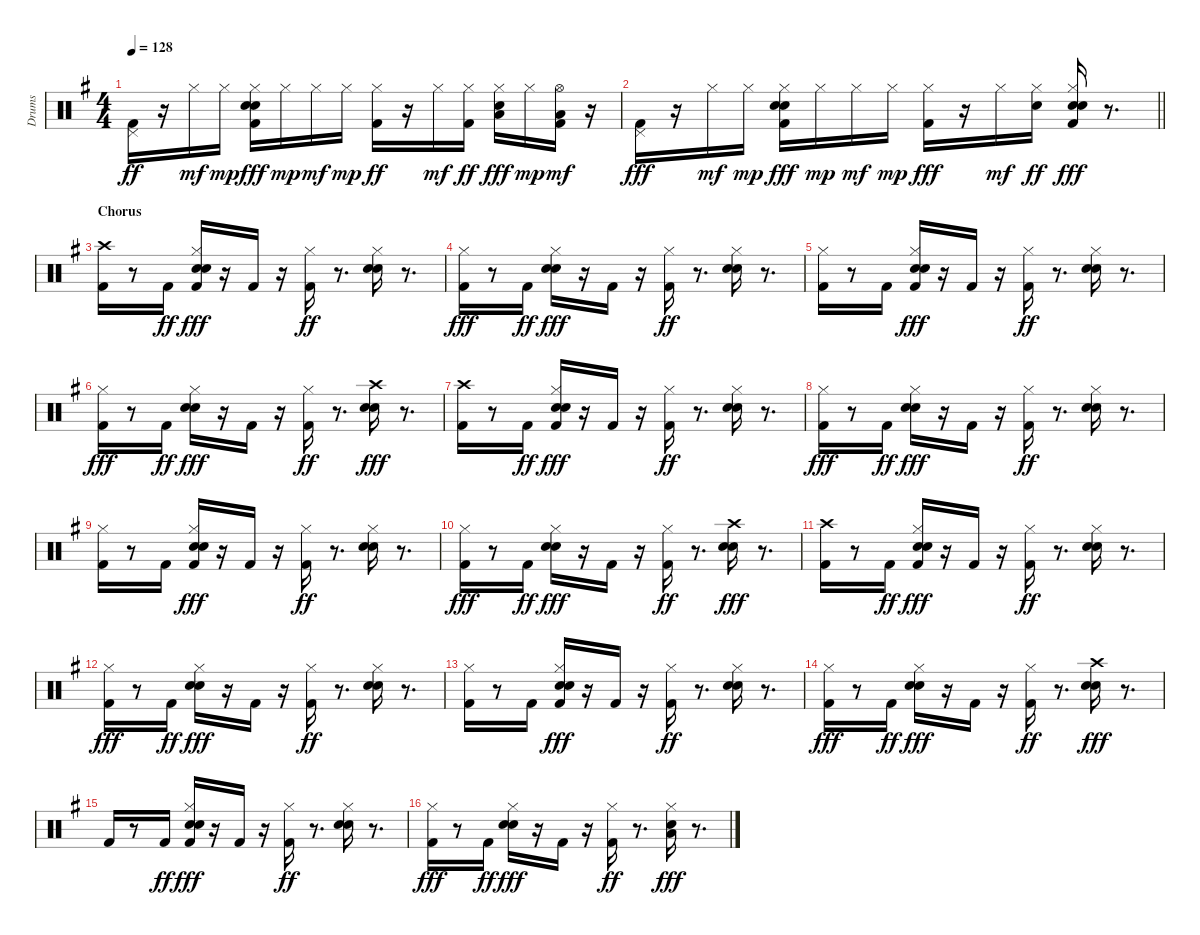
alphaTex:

\track ("Drums" "Drums") {instrument percussion}
\staff {score}
\articulation defaults
\ts (4 4)
\tempo 128
\clef neutral
\ks eminor
("Kick (hit) 2" "Pedal Hi-Hat (hit)").16{dy ff} r.16 "Hi-Hat (closed)".16{dy mf} "Hi-Hat (closed)".16{dy mp} ("Hand Clap (hit)" "Kick (hit) 2" "Hi-Hat (closed)" "Electric Snare (hit)").16{dy fff} "Hi-Hat (closed)".16{dy mp} "Hi-Hat (closed)".16{dy mf} "Hi-Hat (closed)".16{dy mp} ("Kick (hit) 2" "Hi-Hat (closed)").16{dy ff} r.16 "Hi-Hat (closed)".16{dy mf} ("Hi-Hat (closed)" "Kick (hit) 2").16{dy ff} ("Hand Clap (hit)" "Hi-Hat (closed)" "Low Tom (hit)").16{dy fff} "Hi-Hat (closed)".16{dy mp} ("Kick (hit) 2" "Low Floor Tom (hit)" "Hi-Hat (open)").16{dy mf} r.16 |
\barLineRight lightlight
("Pedal Hi-Hat (hit)" "Kick (hit) 2").16{dy fff} r.16 "Hi-Hat (closed)".16{dy mf} "Hi-Hat (closed)".16{dy mp} ("Hand Clap (hit)" "Hi-Hat (closed)" "Kick (hit) 2" "Electric Snare (hit)").16{dy fff} "Hi-Hat (closed)".16{dy mp} "Hi-Hat (closed)".16{dy mf} "Hi-Hat (closed)".16{dy mp} ("Hi-Hat (closed)" "Kick (hit) 2").16{dy fff} r.16 "Hi-Hat (closed)".16{dy mf} ("Hi-Hat (closed)" "Electric Snare (hit)").16{dy ff} ("Hand Clap (hit)" "Hi-Hat (closed)" "Kick (hit) 2" "Electric Snare (hit)").16{dy fff} r.8{d} |
\section ("" "Chorus")
("Kick (hit) 2" "Crash high (hit)").16 r.8 "Kick (hit) 2".16{dy ff} ("Hand Clap (hit)" "Kick (hit) 2" "Hi-Hat (closed)" "Electric Snare (hit)").16{dy fff} r.16 "Kick (hit) 2".16 r.16 ("Kick (hit) 2" "Hi-Hat (closed)").16{dy ff} r.8{d} ("Hand Clap (hit)" "Electric Snare (hit)" "Hi-Hat (closed)").16 r.8{d} |
("Hi-Hat (closed)" "Kick (hit) 2").16{dy fff} r.8 "Kick (hit) 2".16{dy ff} ("Hand Clap (hit)" "Hi-Hat (closed)" "Electric Snare (hit)").16{dy fff} r.16 "Kick (hit) 2".16 r.16 ("Kick (hit) 2" "Hi-Hat (closed)").16{dy ff} r.8{d} ("Hand Clap (hit)" "Electric Snare (hit)" "Hi-Hat (closed)").16 r.8{d} |
("Kick (hit) 2" "Hi-Hat (closed)").16 r.8 "Kick (hit) 2".16 ("Hand Clap (hit)" "Kick (hit) 2" "Hi-Hat (closed)" "Electric Snare (hit)").16{dy fff} r.16 "Kick (hit) 2".16 r.16 ("Kick (hit) 2" "Hi-Hat (closed)").16{dy ff} r.8{d} ("Hand Clap (hit)" "Electric Snare (hit)" "Hi-Hat (closed)").16 r.8{d} |
("Hi-Hat (closed)" "Kick (hit) 2").16{dy fff} r.8 "Kick (hit) 2".16{dy ff} ("Hand Clap (hit)" "Hi-Hat (closed)" "Electric Snare (hit)").16{dy fff} r.16 "Kick (hit) 2".16 r.16 ("Kick (hit) 2" "Hi-Hat (closed)").16{dy ff} r.8{d} ("Hand Clap (hit)" "Crash high (hit)" "Electric Snare (hit)").16{dy fff} r.8{d} |
("Kick (hit) 2" "Crash high (hit)").16 r.8 "Kick (hit) 2".16{dy ff} ("Hand Clap (hit)" "Kick (hit) 2" "Hi-Hat (closed)" "Electric Snare (hit)").16{dy fff} r.16 "Kick (hit) 2".16 r.16 ("Kick (hit) 2" "Hi-Hat (closed)").16{dy ff} r.8{d} ("Hand Clap (hit)" "Electric Snare (hit)" "Hi-Hat (closed)").16 r.8{d} |
("Hi-Hat (closed)" "Kick (hit) 2").16{dy fff} r.8 "Kick (hit) 2".16{dy ff} ("Hand Clap (hit)" "Hi-Hat (closed)" "Electric Snare (hit)").16{dy fff} r.16 "Kick (hit) 2".16 r.16 ("Kick (hit) 2" "Hi-Hat (closed)").16{dy ff} r.8{d} ("Hand Clap (hit)" "Electric Snare (hit)" "Hi-Hat (closed)").16 r.8{d} |
("Kick (hit) 2" "Hi-Hat (closed)").16 r.8 "Kick (hit) 2".16 ("Hand Clap (hit)" "Kick (hit) 2" "Hi-Hat (closed)" "Electric Snare (hit)").16{dy fff} r.16 "Kick (hit) 2".16 r.16 ("Kick (hit) 2" "Hi-Hat (closed)").16{dy ff} r.8{d} ("Hand Clap (hit)" "Electric Snare (hit)" "Hi-Hat (closed)").16 r.8{d} |
("Hi-Hat (closed)" "Kick (hit) 2").16{dy fff} r.8 "Kick (hit) 2".16{dy ff} ("Hand Clap (hit)" "Hi-Hat (closed)" "Electric Snare (hit)").16{dy fff} r.16 "Kick (hit) 2".16 r.16 ("Kick (hit) 2" "Hi-Hat (closed)").16{dy ff} r.8{d} ("Hand Clap (hit)" "Crash high (hit)" "Electric Snare (hit)").16{dy fff} r.8{d} |
("Kick (hit) 2" "Crash high (hit)").16 r.8 "Kick (hit) 2".16{dy ff} ("Hand Clap (hit)" "Kick (hit) 2" "Hi-Hat (closed)" "Electric Snare (hit)").16{dy fff} r.16 "Kick (hit) 2".16 r.16 ("Kick (hit) 2" "Hi-Hat (closed)").16{dy ff} r.8{d} ("Hand Clap (hit)" "Electric Snare (hit)" "Hi-Hat (closed)").16 r.8{d} |
("Hi-Hat (closed)" "Kick (hit) 2").16{dy fff} r.8 "Kick (hit) 2".16{dy ff} ("Hand Clap (hit)" "Hi-Hat (closed)" "Electric Snare (hit)").16{dy fff} r.16 "Kick (hit) 2".16 r.16 ("Kick (hit) 2" "Hi-Hat (closed)").16{dy ff} r.8{d} ("Hand Clap (hit)" "Electric Snare (hit)" "Hi-Hat (closed)").16 r.8{d} |
("Kick (hit) 2" "Hi-Hat (closed)").16 r.8 "Kick (hit) 2".16 ("Hand Clap (hit)" "Kick (hit) 2" "Hi-Hat (closed)" "Electric Snare (hit)").16{dy fff} r.16 "Kick (hit) 2".16 r.16 ("Kick (hit) 2" "Hi-Hat (closed)").16{dy ff} r.8{d} ("Hand Clap (hit)" "Electric Snare (hit)" "Hi-Hat (closed)").16 r.8{d} |
("Hi-Hat (closed)" "Kick (hit) 2").16{dy fff} r.8 "Kick (hit) 2".16{dy ff} ("Hand Clap (hit)" "Hi-Hat (closed)" "Electric Snare (hit)").16{dy fff} r.16 "Kick (hit) 2".16 r.16 ("Kick (hit) 2" "Hi-Hat (closed)").16{dy ff} r.8{d} ("Hand Clap (hit)" "Crash high (hit)" "Electric Snare (hit)").16{dy fff} r.8{d} |
"Kick (hit) 2".16 r.8 "Kick (hit) 2".16{dy ff} ("Hand Clap (hit)" "Kick (hit) 2" "Hi-Hat (closed)" "Electric Snare (hit)").16{dy fff} r.16 "Kick (hit) 2".16 r.16 ("Kick (hit) 2" "Hi-Hat (closed)").16{dy ff} r.8{d} ("Hand Clap (hit)" "Electric Snare (hit)" "Hi-Hat (closed)").16 r.8{d} |
("Hi-Hat (closed)" "Kick (hit) 2").16{dy fff} r.8 "Kick (hit) 2".16{dy ff} ("Hand Clap (hit)" "Hi-Hat (closed)" "Electric Snare (hit)").16{dy fff} r.16 "Kick (hit) 2".16 r.16 ("Kick (hit) 2" "Hi-Hat (closed)").16{dy ff} r.8{d} ("Hand Clap (hit)" "Hi-Hat (closed)" "Low Floor Tom (hit)").16{dy fff} r.8{d}
